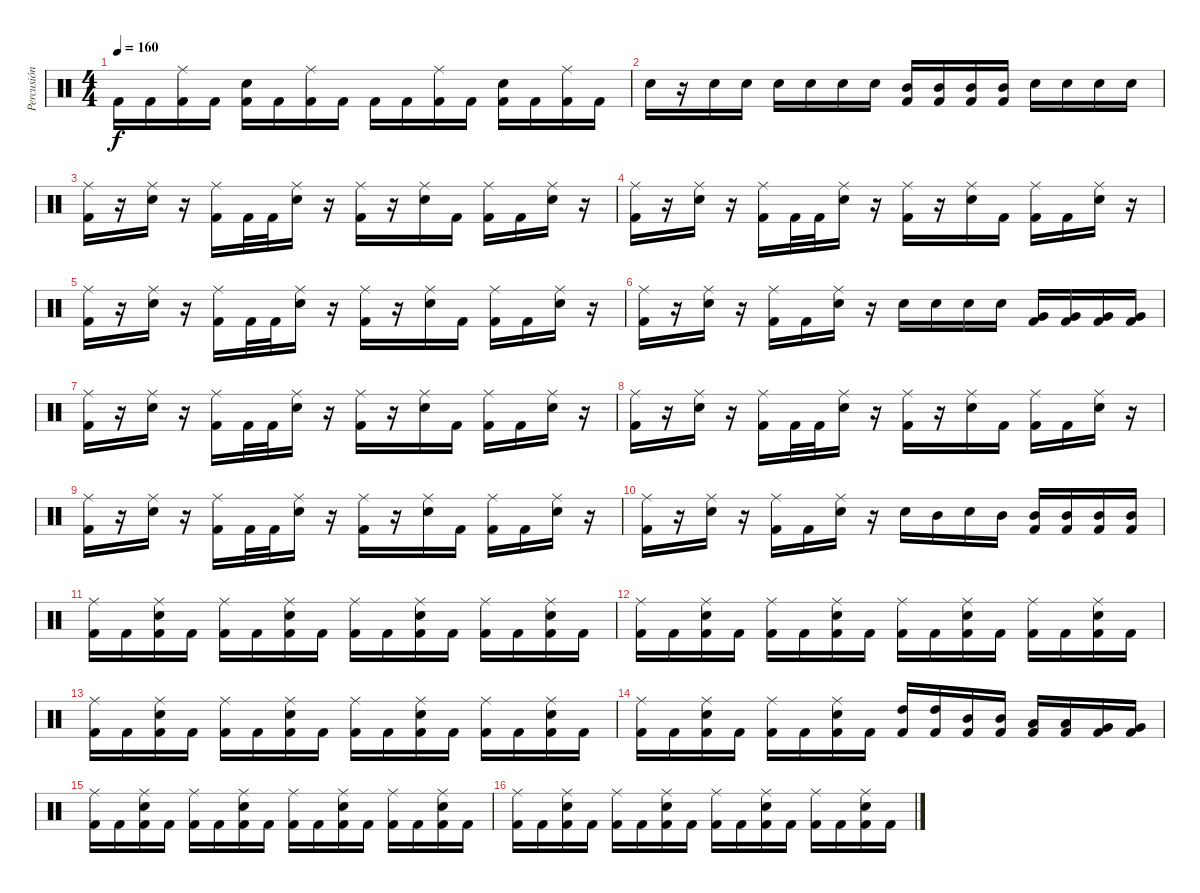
\track ("Percusión" "Percusión") {instrument percussion}
\staff {score}
\articulation defaults
\ts (4 4)
\tempo 160
\clef neutral
\ks c "Kick (hit) 2".16{dy f} "Kick (hit) 2".16
("Ride (middle)" "Kick (hit) 2").16 "Kick (hit) 2".16 ("Snare (hit) 2" "Kick (hit) 2").16 "Kick (hit) 2".16 ("Ride (middle)" "Kick (hit) 2").16 "Kick (hit) 2".16 "Kick (hit) 2".16 "Kick (hit) 2".16 ("Ride (middle)" "Kick (hit) 2").16 "Kick (hit) 2".16 ("Snare (hit) 2" "Kick (hit) 2").16 "Kick (hit) 2".16 ("Ride (middle)" "Kick (hit) 2").16 "Kick (hit) 2".16 |
"Snare (hit) 2".16 r.16 "Snare (hit) 2".16 "Snare (hit) 2".16 "Snare (hit) 2".16 "Snare (hit) 2".16 "Snare (hit) 2".16 "Snare (hit) 2".16 ("Mid Tom (hit)" "Kick (hit) 2").16 ("Mid Tom (hit)" "Kick (hit) 2").16 ("Mid Tom (hit)" "Kick (hit) 2").16 ("Mid Tom (hit)" "Kick (hit) 2").16 "Snare (hit) 2".16 "Snare (hit) 2".16 "Snare (hit) 2".16 "Snare (hit) 2".16 |
("Ride (middle)" "Kick (hit) 2").16 r.16 ("Ride (middle)" "Snare (hit) 2").16 r.16 ("Ride (middle)" "Kick (hit) 2").16 "Kick (hit) 2".32 "Kick (hit) 2".32 ("Ride (middle)" "Snare (hit) 2").16 r.16 ("Ride (middle)" "Kick (hit) 2").16 r.16 ("Ride (middle)" "Snare (hit) 2").16 "Kick (hit) 2".16 ("Ride (middle)" "Kick (hit) 2").16 "Kick (hit) 2".16 ("Ride (middle)" "Snare (hit) 2").16 r.16 |
("Ride (middle)" "Kick (hit) 2").16 r.16 ("Ride (middle)" "Snare (hit) 2").16 r.16 ("Ride (middle)" "Kick (hit) 2").16 "Kick (hit) 2".32 "Kick (hit) 2".32 ("Ride (middle)" "Snare (hit) 2").16 r.16 ("Ride (middle)" "Kick (hit) 2").16 r.16 ("Ride (middle)" "Snare (hit) 2").16 "Kick (hit) 2".16 ("Ride (middle)" "Kick (hit) 2").16 "Kick (hit) 2".16 ("Ride (middle)" "Snare (hit) 2").16 r.16 |
("Ride (middle)" "Kick (hit) 2").16 r.16 ("Ride (middle)" "Snare (hit) 2").16 r.16 ("Ride (middle)" "Kick (hit) 2").16 "Kick (hit) 2".32 "Kick (hit) 2".32 ("Ride (middle)" "Snare (hit) 2").16 r.16 ("Ride (middle)" "Kick (hit) 2").16 r.16 ("Ride (middle)" "Snare (hit) 2").16 "Kick (hit) 2".16 ("Ride (middle)" "Kick (hit) 2").16 "Kick (hit) 2".16 ("Ride (middle)" "Snare (hit) 2").16 r.16 |
("Ride (middle)" "Kick (hit) 2").16 r.16 ("Ride (middle)" "Snare (hit) 2").16 r.16 ("Ride (middle)" "Kick (hit) 2").16 "Kick (hit) 2".16 ("Ride (middle)" "Snare (hit) 2").16 r.16 "Snare (hit) 2".16 "Snare (hit) 2".16 "Snare (hit) 2".16 "Snare (hit) 2".16 ("Very Low Tom (hit)" "Kick (hit) 2").16 ("Very Low Tom (hit)" "Kick (hit) 2").16 ("Very Low Tom (hit)" "Kick (hit) 2").16 ("Very Low Tom (hit)" "Kick (hit) 2").16 |
("Ride (middle)" "Kick (hit) 2").16 r.16 ("Ride (middle)" "Snare (hit) 2").16 r.16 ("Ride (middle)" "Kick (hit) 2").16 "Kick (hit) 2".32 "Kick (hit) 2".32 ("Ride (middle)" "Snare (hit) 2").16 r.16 ("Ride (middle)" "Kick (hit) 2").16 r.16 ("Ride (middle)" "Snare (hit) 2").16 "Kick (hit) 2".16 ("Ride (middle)" "Kick (hit) 2").16 "Kick (hit) 2".16 ("Ride (middle)" "Snare (hit) 2").16 r.16 |
("Ride (middle)" "Kick (hit) 2").16 r.16 ("Ride (middle)" "Snare (hit) 2").16 r.16 ("Ride (middle)" "Kick (hit) 2").16 "Kick (hit) 2".32 "Kick (hit) 2".32 ("Ride (middle)" "Snare (hit) 2").16 r.16 ("Ride (middle)" "Kick (hit) 2").16 r.16 ("Ride (middle)" "Snare (hit) 2").16 "Kick (hit) 2".16 ("Ride (middle)" "Kick (hit) 2").16 "Kick (hit) 2".16 ("Ride (middle)" "Snare (hit) 2").16 r.16 |
("Ride (middle)" "Kick (hit) 2").16 r.16 ("Ride (middle)" "Snare (hit) 2").16 r.16 ("Ride (middle)" "Kick (hit) 2").16 "Kick (hit) 2".32 "Kick (hit) 2".32 ("Ride (middle)" "Snare (hit) 2").16 r.16 ("Ride (middle)" "Kick (hit) 2").16 r.16 ("Ride (middle)" "Snare (hit) 2").16 "Kick (hit) 2".16 ("Ride (middle)" "Kick (hit) 2").16 "Kick (hit) 2".16 ("Ride (middle)" "Snare (hit) 2").16 r.16 |
("Ride (middle)" "Kick (hit) 2").16 r.16 ("Ride (middle)" "Snare (hit) 2").16 r.16 ("Ride (middle)" "Kick (hit) 2").16 "Kick (hit) 2".16 ("Ride (middle)" "Snare (hit) 2").16 r.16 "Snare (hit) 2".16 "Mid Tom (hit)".16 "Snare (hit) 2".16 "Mid Tom (hit)".16 ("Mid Tom (hit)" "Kick (hit) 2").16 ("Mid Tom (hit)" "Kick (hit) 2").16 ("Mid Tom (hit)" "Kick (hit) 2").16 ("Mid Tom (hit)" "Kick (hit) 2").16 |
("Ride (middle)" "Kick (hit) 2").16 "Kick (hit) 2".16 ("Ride (middle)" "Snare (hit) 2" "Kick (hit) 2").16 "Kick (hit) 2".16 ("Ride (middle)" "Kick (hit) 2").16 "Kick (hit) 2".16 ("Ride (middle)" "Snare (hit) 2" "Kick (hit) 2").16 "Kick (hit) 2".16 ("Ride (middle)" "Kick (hit) 2").16 "Kick (hit) 2".16 ("Ride (middle)" "Snare (hit) 2" "Kick (hit) 2").16 "Kick (hit) 2".16 ("Ride (middle)" "Kick (hit) 2").16 "Kick (hit) 2".16 ("Ride (middle)" "Snare (hit) 2" "Kick (hit) 2").16 "Kick (hit) 2".16 |
("Ride (middle)" "Kick (hit) 2").16 "Kick (hit) 2".16 ("Ride (middle)" "Snare (hit) 2" "Kick (hit) 2").16 "Kick (hit) 2".16 ("Ride (middle)" "Kick (hit) 2").16 "Kick (hit) 2".16 ("Ride (middle)" "Snare (hit) 2" "Kick (hit) 2").16 "Kick (hit) 2".16 ("Ride (middle)" "Kick (hit) 2").16 "Kick (hit) 2".16 ("Ride (middle)" "Snare (hit) 2" "Kick (hit) 2").16 "Kick (hit) 2".16 ("Ride (middle)" "Kick (hit) 2").16 "Kick (hit) 2".16 ("Ride (middle)" "Snare (hit) 2" "Kick (hit) 2").16 "Kick (hit) 2".16 |
("Ride (middle)" "Kick (hit) 2").16 "Kick (hit) 2".16 ("Ride (middle)" "Snare (hit) 2" "Kick (hit) 2").16 "Kick (hit) 2".16 ("Ride (middle)" "Kick (hit) 2").16 "Kick (hit) 2".16 ("Ride (middle)" "Snare (hit) 2" "Kick (hit) 2").16 "Kick (hit) 2".16 ("Ride (middle)" "Kick (hit) 2").16 "Kick (hit) 2".16 ("Ride (middle)" "Snare (hit) 2" "Kick (hit) 2").16 "Kick (hit) 2".16 ("Ride (middle)" "Kick (hit) 2").16 "Kick (hit) 2".16 ("Ride (middle)" "Snare (hit) 2" "Kick (hit) 2").16 "Kick (hit) 2".16 |
("Ride (middle)" "Kick (hit) 2").16 "Kick (hit) 2".16 ("Ride (middle)" "Snare (hit) 2" "Kick (hit) 2").16 "Kick (hit) 2".16 ("Ride (middle)" "Kick (hit) 2").16 "Kick (hit) 2".16 ("Ride (middle)" "Snare (hit) 2" "Kick (hit) 2").16 "Kick (hit) 2".16 ("High Tom (hit)" "Kick (hit) 2").16 ("High Tom (hit)" "Kick (hit) 2").16 ("Mid Tom (hit)" "Kick (hit) 2").16 ("Mid Tom (hit)" "Kick (hit) 2").16 ("Low Tom (hit)" "Kick (hit) 2").16 ("Low Tom (hit)" "Kick (hit) 2").16 ("Very Low Tom (hit)" "Kick (hit) 2").16 ("Very Low Tom (hit)" "Kick (hit) 2").16 |
("Ride (middle)" "Kick (hit) 2").16 "Kick (hit) 2".16 ("Ride (middle)" "Snare (hit) 2" "Kick (hit) 2").16 "Kick (hit) 2".16 ("Ride (middle)" "Kick (hit) 2").16 "Kick (hit) 2".16 ("Ride (middle)" "Snare (hit) 2" "Kick (hit) 2").16 "Kick (hit) 2".16 ("Ride (middle)" "Kick (hit) 2").16 "Kick (hit) 2".16 ("Ride (middle)" "Snare (hit) 2" "Kick (hit) 2").16 "Kick (hit) 2".16 ("Ride (middle)" "Kick (hit) 2").16 "Kick (hit) 2".16 ("Ride (middle)" "Snare (hit) 2" "Kick (hit) 2").16 "Kick (hit) 2".16 |
("Ride (middle)" "Kick (hit) 2").16 "Kick (hit) 2".16 ("Ride (middle)" "Snare (hit) 2" "Kick (hit) 2").16 "Kick (hit) 2".16 ("Ride (middle)" "Kick (hit) 2").16 "Kick (hit) 2".16 ("Ride (middle)" "Snare (hit) 2" "Kick (hit) 2").16 "Kick (hit) 2".16 ("Ride (middle)" "Kick (hit) 2").16 "Kick (hit) 2".16 ("Ride (middle)" "Snare (hit) 2" "Kick (hit) 2").16 "Kick (hit) 2".16 ("Ride (middle)" "Kick (hit) 2").16 "Kick (hit) 2".16 ("Ride (middle)" "Snare (hit) 2" "Kick (hit) 2").16 "Kick (hit) 2".16
